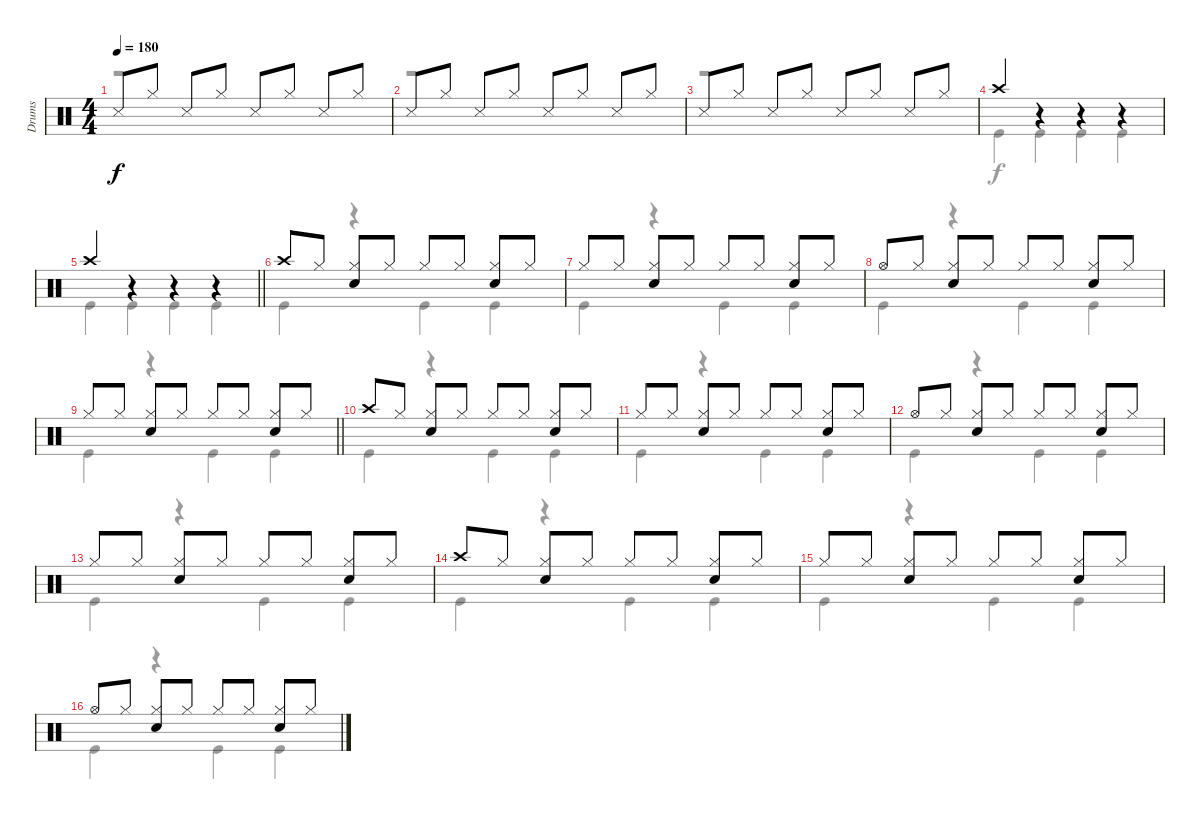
\track ("Drums" "Drums") {instrument percussion}
\staff {score}
\articulation defaults
\voice
\ts (4 4)
\tempo 180
\clef neutral
\ks c "Snare (side stick) 3".8{dy f} "Hi-Hat (closed)".8 "Snare (side stick) 3".8 "Hi-Hat (closed)".8 "Snare (side stick) 3".8 "Hi-Hat (closed)".8 "Snare (side stick) 3".8 "Hi-Hat (closed)".8
|
"Snare (side stick) 3".8 "Hi-Hat (closed)".8 "Snare (side stick) 3".8 "Hi-Hat (closed)".8 "Snare (side stick) 3".8 "Hi-Hat (closed)".8 "Snare (side stick) 3".8 "Hi-Hat (closed)".8 |
"Snare (side stick) 3".8 "Hi-Hat (closed)".8 "Snare (side stick) 3".8 "Hi-Hat (closed)".8 "Snare (side stick) 3".8 "Hi-Hat (closed)".8 "Snare (side stick) 3".8 "Hi-Hat (closed)".8 |
"Crash high (hit)".4 r.4 r.4 r.4 |
\barLineRight lightlight "Crash high (hit)".4
r.4 r.4 r.4 |
"Crash high (hit)".8 "Hi-Hat (closed)".8 ("Hi-Hat (closed)" "Snare (hit) 2").8 "Hi-Hat (closed)".8 "Hi-Hat (closed)".8 "Hi-Hat (closed)".8 ("Hi-Hat (closed)" "Snare (hit) 2").8 "Hi-Hat (closed)".8 |
"Hi-Hat (closed)".8 "Hi-Hat (closed)".8 ("Hi-Hat (closed)" "Snare (hit) 2").8 "Hi-Hat (closed)".8 "Hi-Hat (closed)".8 "Hi-Hat (closed)".8 ("Hi-Hat (closed)" "Snare (hit) 2").8 "Hi-Hat (closed)".8 |
"Hi-Hat (open)".8 "Hi-Hat (closed)".8 ("Hi-Hat (closed)" "Snare (hit) 2").8 "Hi-Hat (closed)".8 "Hi-Hat (closed)".8 "Hi-Hat (closed)".8 ("Hi-Hat (closed)" "Snare (hit) 2").8 "Hi-Hat (closed)".8 |
\barLineRight lightlight "Hi-Hat (closed)".8 "Hi-Hat (closed)".8
("Hi-Hat (closed)" "Snare (hit) 2").8 "Hi-Hat (closed)".8 "Hi-Hat (closed)".8 "Hi-Hat (closed)".8 ("Hi-Hat (closed)" "Snare (hit) 2").8 "Hi-Hat (closed)".8 |
"Crash high (hit)".8 "Hi-Hat (closed)".8 ("Hi-Hat (closed)" "Snare (hit) 2").8 "Hi-Hat (closed)".8 "Hi-Hat (closed)".8 "Hi-Hat (closed)".8 ("Hi-Hat (closed)" "Snare (hit) 2").8 "Hi-Hat (closed)".8 |
"Hi-Hat (closed)".8 "Hi-Hat (closed)".8 ("Hi-Hat (closed)" "Snare (hit) 2").8 "Hi-Hat (closed)".8 "Hi-Hat (closed)".8 "Hi-Hat (closed)".8 ("Hi-Hat (closed)" "Snare (hit) 2").8 "Hi-Hat (closed)".8 |
"Hi-Hat (open)".8 "Hi-Hat (closed)".8 ("Hi-Hat (closed)" "Snare (hit) 2").8 "Hi-Hat (closed)".8 "Hi-Hat (closed)".8 "Hi-Hat (closed)".8 ("Hi-Hat (closed)" "Snare (hit) 2").8 "Hi-Hat (closed)".8 |
"Hi-Hat (closed)".8 "Hi-Hat (closed)".8 ("Hi-Hat (closed)" "Snare (hit) 2").8 "Hi-Hat (closed)".8 "Hi-Hat (closed)".8 "Hi-Hat (closed)".8 ("Hi-Hat (closed)" "Snare (hit) 2").8 "Hi-Hat (closed)".8 |
"Crash high (hit)".8 "Hi-Hat (closed)".8 ("Hi-Hat (closed)" "Snare (hit) 2").8 "Hi-Hat (closed)".8 "Hi-Hat (closed)".8 "Hi-Hat (closed)".8 ("Hi-Hat (closed)" "Snare (hit) 2").8 "Hi-Hat (closed)".8 |
"Hi-Hat (closed)".8 "Hi-Hat (closed)".8 ("Hi-Hat (closed)" "Snare (hit) 2").8 "Hi-Hat (closed)".8 "Hi-Hat (closed)".8 "Hi-Hat (closed)".8 ("Hi-Hat (closed)" "Snare (hit) 2").8 "Hi-Hat (closed)".8 |
"Hi-Hat (open)".8 "Hi-Hat (closed)".8 ("Hi-Hat (closed)" "Snare (hit) 2").8 "Hi-Hat (closed)".8 "Hi-Hat (closed)".8 "Hi-Hat (closed)".8 ("Hi-Hat (closed)" "Snare (hit) 2").8 "Hi-Hat (closed)".8
\voice
\clef neutral
\ottava regular
\simile none
\ks c
r.1{dy f} |
r.1 |
r.1 |
"Kick (hit)".4 "Kick (hit)".4 "Kick (hit)".4 "Kick (hit)".4 |
\barLineRight lightlight "Kick (hit)".4 "Kick (hit)".4 "Kick (hit)".4 "Kick (hit)".4
|
"Kick (hit)".4 r.4 "Kick (hit)".4 "Kick (hit)".4 |
"Kick (hit)".4 r.4 "Kick (hit)".4 "Kick (hit)".4 |
"Kick (hit)".4 r.4 "Kick (hit)".4 "Kick (hit)".4 |
\barLineRight lightlight "Kick (hit)".4
r.4 "Kick (hit)".4 "Kick (hit)".4 |
"Kick (hit)".4 r.4 "Kick (hit)".4 "Kick (hit)".4 |
"Kick (hit)".4 r.4 "Kick (hit)".4 "Kick (hit)".4 |
"Kick (hit)".4 r.4 "Kick (hit)".4 "Kick (hit)".4 |
"Kick (hit)".4 r.4 "Kick (hit)".4 "Kick (hit)".4 |
"Kick (hit)".4 r.4 "Kick (hit)".4 "Kick (hit)".4 |
"Kick (hit)".4 r.4 "Kick (hit)".4 "Kick (hit)".4 |
"Kick (hit)".4 r.4 "Kick (hit)".4 "Kick (hit)".4
